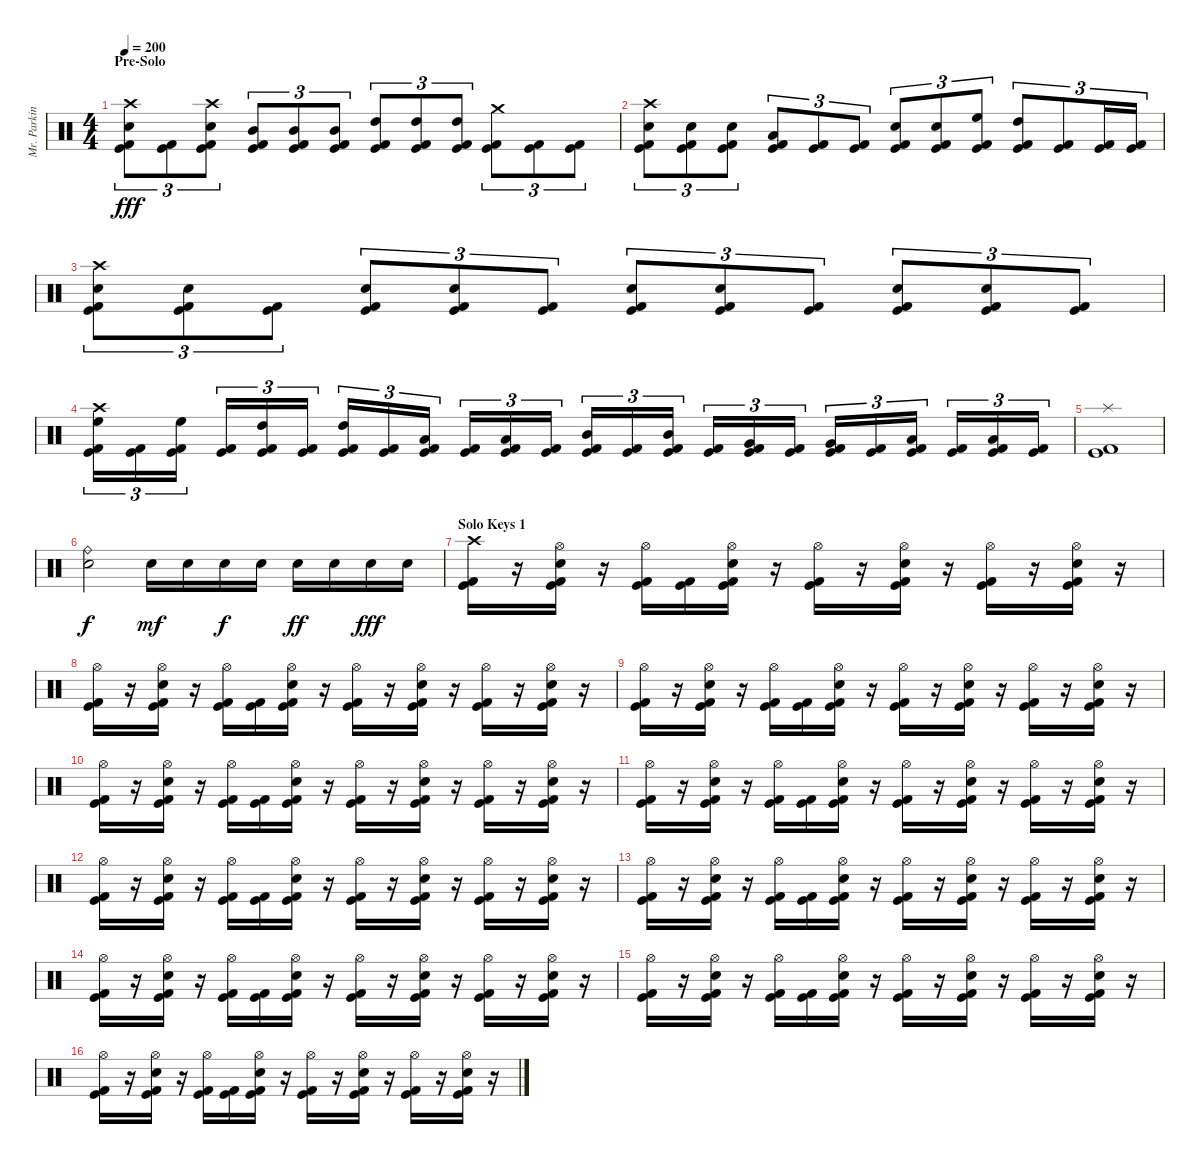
\track ("Mr. Parkinson" "Mr. Parkin") {instrument percussion}
\staff {score}
\articulation defaults
\ts (4 4)
\section ("" "Pre-Solo")
\tempo 200
\clef neutral
\ks c
("Crash high (hit)" "Electric Snare (hit)" "Kick (hit)" "Kick (hit) 2").8{tu (3 2) dy fff} ("Kick (hit)" "Kick (hit) 2").8{tu (3 2)} ("Crash high (hit)" "Electric Snare (hit)" "Kick (hit)" "Kick (hit) 2").8{tu (3 2)} ("Mid Tom (hit)" "Kick (hit)" "Kick (hit) 2").8{tu (3 2)} ("Mid Tom (hit)" "Kick (hit)" "Kick (hit) 2").8{tu (3 2)} ("Mid Tom (hit)" "Kick (hit)" "Kick (hit) 2").8{tu (3 2)} ("High Tom (hit)" "Kick (hit)" "Kick (hit) 2").8{tu (3 2)} ("High Tom (hit)" "Kick (hit)" "Kick (hit) 2").8{tu (3 2)} ("High Tom (hit)" "Kick (hit)" "Kick (hit) 2").8{tu (3 2)} ("Crash medium (hit)" "Kick (hit)" "Kick (hit) 2").8{tu (3 2)} ("Kick (hit)" "Kick (hit) 2").8{tu (3 2)} ("Kick (hit)" "Kick (hit) 2").8{tu (3 2)} |
("Crash high (hit)" "Electric Snare (hit)" "Kick (hit)" "Kick (hit) 2").8{tu (3 2)} ("Electric Snare (hit)" "Kick (hit)" "Kick (hit) 2").8{tu (3 2)} ("Electric Snare (hit)" "Kick (hit)" "Kick (hit) 2").8{tu (3 2)} ("Low Tom (hit)" "Kick (hit)" "Kick (hit) 2").8{tu (3 2)} ("Kick (hit)" "Kick (hit) 2").8{tu (3 2)} ("Kick (hit)" "Kick (hit) 2").8{tu (3 2)} ("Electric Snare (hit)" "Kick (hit)" "Kick (hit) 2").8{tu (3 2)} ("Electric Snare (hit)" "Kick (hit)" "Kick (hit) 2").8{tu (3 2)} ("High Floor Tom (hit)" "Kick (hit)" "Kick (hit) 2").8{tu (3 2)} ("High Tom (hit)" "Kick (hit)" "Kick (hit) 2").8{tu (3 2)} ("Kick (hit)" "Kick (hit) 2").8{tu (3 2)} ("Kick (hit)" "Kick (hit) 2").16{tu (3 2)} ("Kick (hit)" "Kick (hit) 2").16{tu (3 2)} |
("Crash high (hit)" "Electric Snare (hit)" "Kick (hit)" "Kick (hit) 2").8{tu (3 2)} ("Electric Snare (hit)" "Kick (hit)" "Kick (hit) 2").8{tu (3 2)} ("Kick (hit)" "Kick (hit) 2").8{tu (3 2)} ("Electric Snare (hit)" "Kick (hit)" "Kick (hit) 2").8{tu (3 2)} ("Electric Snare (hit)" "Kick (hit)" "Kick (hit) 2").8{tu (3 2)} ("Kick (hit)" "Kick (hit) 2").8{tu (3 2)} ("Electric Snare (hit)" "Kick (hit)" "Kick (hit) 2").8{tu (3 2)} ("Electric Snare (hit)" "Kick (hit)" "Kick (hit) 2").8{tu (3 2)} ("Kick (hit)" "Kick (hit) 2").8{tu (3 2)} ("Electric Snare (hit)" "Kick (hit)" "Kick (hit) 2").8{tu (3 2)} ("Electric Snare (hit)" "Kick (hit)" "Kick (hit) 2").8{tu (3 2)} ("Kick (hit)" "Kick (hit) 2").8{tu (3 2)} |
("Crash high (hit)" "High Floor Tom (hit)" "Kick (hit)" "Kick (hit) 2").16{tu (3 2)} ("Kick (hit)" "Kick (hit) 2").16{tu (3 2)} ("High Floor Tom (hit)" "Kick (hit)" "Kick (hit) 2").16{tu (3 2)} ("Kick (hit)" "Kick (hit) 2").16{tu (3 2)} ("High Tom (hit)" "Kick (hit)" "Kick (hit) 2").16{tu (3 2)} ("Kick (hit)" "Kick (hit) 2").16{tu (3 2)} ("High Tom (hit)" "Kick (hit)" "Kick (hit) 2").16{tu (3 2)} ("Kick (hit)" "Kick (hit) 2").16{tu (3 2)} ("Low Tom (hit)" "Kick (hit)" "Kick (hit) 2").16{tu (3 2)} ("Kick (hit)" "Kick (hit) 2").16{tu (3 2)} ("Low Tom (hit)" "Kick (hit)" "Kick (hit) 2").16{tu (3 2)} ("Kick (hit)" "Kick (hit) 2").16{tu (3 2)} ("Mid Tom (hit)" "Kick (hit)" "Kick (hit) 2").16{tu (3 2)} ("Kick (hit)" "Kick (hit) 2").16{tu (3 2)} ("Mid Tom (hit)" "Kick (hit)" "Kick (hit) 2").16{tu (3 2)} ("Kick (hit)" "Kick (hit) 2").16{tu (3 2)} ("Very Low Tom (hit)" "Kick (hit)" "Kick (hit) 2").16{tu (3 2)} ("Kick (hit)" "Kick (hit) 2").16{tu (3 2)} ("Very Low Tom (hit)" "Kick (hit)" "Kick (hit) 2").16{tu (3 2)} ("Kick (hit)" "Kick (hit) 2").16{tu (3 2)} ("Low Floor Tom (hit)" "Kick (hit)" "Kick (hit) 2").16{tu (3 2)} ("Kick (hit)" "Kick (hit) 2").16{tu (3 2)} ("Low Floor Tom (hit)" "Kick (hit)" "Kick (hit) 2").16{tu (3 2)} ("Kick (hit)" "Kick (hit) 2").16{tu (3 2)} |
("Splash (hit)" "Kick (hit)" "Kick (hit) 2").1 |
("Ride (bell)" "Electric Snare (hit)").2{dy f} "Electric Snare (hit)".16{dy mf} "Electric Snare (hit)".16 "Electric Snare (hit)".16{dy f} "Electric Snare (hit)".16 "Electric Snare (hit)".16{dy ff} "Electric Snare (hit)".16 "Electric Snare (hit)".16{dy fff} "Electric Snare (hit)".16 |
\section ("" "Solo Keys 1")
("Crash high (hit)" "Kick (hit)" "Kick (hit) 2").16 r.16 ("Hi-Hat (open)" "Electric Snare (hit)" "Kick (hit)" "Kick (hit) 2").16 r.16 ("Hi-Hat (open)" "Kick (hit)" "Kick (hit) 2").16 ("Kick (hit)" "Kick (hit) 2").16 ("Hi-Hat (open)" "Electric Snare (hit)" "Kick (hit)" "Kick (hit) 2").16 r.16 ("Hi-Hat (open)" "Kick (hit)" "Kick (hit) 2").16 r.16 ("Hi-Hat (open)" "Electric Snare (hit)" "Kick (hit)" "Kick (hit) 2").16 r.16 ("Hi-Hat (open)" "Kick (hit)" "Kick (hit) 2").16 r.16 ("Hi-Hat (open)" "Electric Snare (hit)" "Kick (hit)" "Kick (hit) 2").16 r.16 |
("Hi-Hat (open)" "Kick (hit)" "Kick (hit) 2").16 r.16 ("Hi-Hat (open)" "Electric Snare (hit)" "Kick (hit)" "Kick (hit) 2").16 r.16 ("Hi-Hat (open)" "Kick (hit)" "Kick (hit) 2").16 ("Kick (hit)" "Kick (hit) 2").16 ("Hi-Hat (open)" "Electric Snare (hit)" "Kick (hit)" "Kick (hit) 2").16 r.16 ("Hi-Hat (open)" "Kick (hit)" "Kick (hit) 2").16 r.16 ("Hi-Hat (open)" "Electric Snare (hit)" "Kick (hit)" "Kick (hit) 2").16 r.16 ("Hi-Hat (open)" "Kick (hit)" "Kick (hit) 2").16 r.16 ("Hi-Hat (open)" "Electric Snare (hit)" "Kick (hit)" "Kick (hit) 2").16 r.16 |
("Hi-Hat (open)" "Kick (hit)" "Kick (hit) 2").16 r.16 ("Hi-Hat (open)" "Electric Snare (hit)" "Kick (hit)" "Kick (hit) 2").16 r.16 ("Hi-Hat (open)" "Kick (hit)" "Kick (hit) 2").16 ("Kick (hit)" "Kick (hit) 2").16 ("Hi-Hat (open)" "Electric Snare (hit)" "Kick (hit)" "Kick (hit) 2").16 r.16 ("Hi-Hat (open)" "Kick (hit)" "Kick (hit) 2").16 r.16 ("Hi-Hat (open)" "Electric Snare (hit)" "Kick (hit)" "Kick (hit) 2").16 r.16 ("Hi-Hat (open)" "Kick (hit)" "Kick (hit) 2").16 r.16 ("Hi-Hat (open)" "Electric Snare (hit)" "Kick (hit)" "Kick (hit) 2").16 r.16 |
("Hi-Hat (open)" "Kick (hit)" "Kick (hit) 2").16 r.16 ("Hi-Hat (open)" "Electric Snare (hit)" "Kick (hit)" "Kick (hit) 2").16 r.16 ("Hi-Hat (open)" "Kick (hit)" "Kick (hit) 2").16 ("Kick (hit)" "Kick (hit) 2").16 ("Hi-Hat (open)" "Electric Snare (hit)" "Kick (hit)" "Kick (hit) 2").16 r.16 ("Hi-Hat (open)" "Kick (hit)" "Kick (hit) 2").16 r.16 ("Hi-Hat (open)" "Electric Snare (hit)" "Kick (hit)" "Kick (hit) 2").16 r.16 ("Hi-Hat (open)" "Kick (hit)" "Kick (hit) 2").16 r.16 ("Hi-Hat (open)" "Electric Snare (hit)" "Kick (hit)" "Kick (hit) 2").16 r.16 |
("Hi-Hat (open)" "Kick (hit)" "Kick (hit) 2").16 r.16 ("Hi-Hat (open)" "Electric Snare (hit)" "Kick (hit)" "Kick (hit) 2").16 r.16 ("Hi-Hat (open)" "Kick (hit)" "Kick (hit) 2").16 ("Kick (hit)" "Kick (hit) 2").16 ("Hi-Hat (open)" "Electric Snare (hit)" "Kick (hit)" "Kick (hit) 2").16 r.16 ("Hi-Hat (open)" "Kick (hit)" "Kick (hit) 2").16 r.16 ("Hi-Hat (open)" "Electric Snare (hit)" "Kick (hit)" "Kick (hit) 2").16 r.16 ("Hi-Hat (open)" "Kick (hit)" "Kick (hit) 2").16 r.16 ("Hi-Hat (open)" "Electric Snare (hit)" "Kick (hit)" "Kick (hit) 2").16 r.16 |
("Hi-Hat (open)" "Kick (hit)" "Kick (hit) 2").16 r.16 ("Hi-Hat (open)" "Electric Snare (hit)" "Kick (hit)" "Kick (hit) 2").16 r.16 ("Hi-Hat (open)" "Kick (hit)" "Kick (hit) 2").16 ("Kick (hit)" "Kick (hit) 2").16 ("Hi-Hat (open)" "Electric Snare (hit)" "Kick (hit)" "Kick (hit) 2").16 r.16 ("Hi-Hat (open)" "Kick (hit)" "Kick (hit) 2").16 r.16 ("Hi-Hat (open)" "Electric Snare (hit)" "Kick (hit)" "Kick (hit) 2").16 r.16 ("Hi-Hat (open)" "Kick (hit)" "Kick (hit) 2").16 r.16 ("Hi-Hat (open)" "Electric Snare (hit)" "Kick (hit)" "Kick (hit) 2").16 r.16 |
("Hi-Hat (open)" "Kick (hit)" "Kick (hit) 2").16 r.16 ("Hi-Hat (open)" "Electric Snare (hit)" "Kick (hit)" "Kick (hit) 2").16 r.16 ("Hi-Hat (open)" "Kick (hit)" "Kick (hit) 2").16 ("Kick (hit)" "Kick (hit) 2").16 ("Hi-Hat (open)" "Electric Snare (hit)" "Kick (hit)" "Kick (hit) 2").16 r.16 ("Hi-Hat (open)" "Kick (hit)" "Kick (hit) 2").16 r.16 ("Hi-Hat (open)" "Electric Snare (hit)" "Kick (hit)" "Kick (hit) 2").16 r.16 ("Hi-Hat (open)" "Kick (hit)" "Kick (hit) 2").16 r.16 ("Hi-Hat (open)" "Electric Snare (hit)" "Kick (hit)" "Kick (hit) 2").16 r.16 |
("Hi-Hat (open)" "Kick (hit)" "Kick (hit) 2").16 r.16 ("Hi-Hat (open)" "Electric Snare (hit)" "Kick (hit)" "Kick (hit) 2").16 r.16 ("Hi-Hat (open)" "Kick (hit)" "Kick (hit) 2").16 ("Kick (hit)" "Kick (hit) 2").16 ("Hi-Hat (open)" "Electric Snare (hit)" "Kick (hit)" "Kick (hit) 2").16 r.16 ("Hi-Hat (open)" "Kick (hit)" "Kick (hit) 2").16 r.16 ("Hi-Hat (open)" "Electric Snare (hit)" "Kick (hit)" "Kick (hit) 2").16 r.16 ("Hi-Hat (open)" "Kick (hit)" "Kick (hit) 2").16 r.16 ("Hi-Hat (open)" "Electric Snare (hit)" "Kick (hit)" "Kick (hit) 2").16 r.16 |
("Hi-Hat (open)" "Kick (hit)" "Kick (hit) 2").16 r.16 ("Hi-Hat (open)" "Electric Snare (hit)" "Kick (hit)" "Kick (hit) 2").16 r.16 ("Hi-Hat (open)" "Kick (hit)" "Kick (hit) 2").16 ("Kick (hit)" "Kick (hit) 2").16 ("Hi-Hat (open)" "Electric Snare (hit)" "Kick (hit)" "Kick (hit) 2").16 r.16 ("Hi-Hat (open)" "Kick (hit)" "Kick (hit) 2").16 r.16 ("Hi-Hat (open)" "Electric Snare (hit)" "Kick (hit)" "Kick (hit) 2").16 r.16 ("Hi-Hat (open)" "Kick (hit)" "Kick (hit) 2").16 r.16 ("Hi-Hat (open)" "Electric Snare (hit)" "Kick (hit)" "Kick (hit) 2").16 r.16 |
("Hi-Hat (open)" "Kick (hit)" "Kick (hit) 2").16 r.16 ("Hi-Hat (open)" "Electric Snare (hit)" "Kick (hit)" "Kick (hit) 2").16 r.16 ("Hi-Hat (open)" "Kick (hit)" "Kick (hit) 2").16 ("Kick (hit)" "Kick (hit) 2").16 ("Hi-Hat (open)" "Electric Snare (hit)" "Kick (hit)" "Kick (hit) 2").16 r.16 ("Hi-Hat (open)" "Kick (hit)" "Kick (hit) 2").16 r.16 ("Hi-Hat (open)" "Electric Snare (hit)" "Kick (hit)" "Kick (hit) 2").16 r.16 ("Hi-Hat (open)" "Kick (hit)" "Kick (hit) 2").16 r.16 ("Hi-Hat (open)" "Electric Snare (hit)" "Kick (hit)" "Kick (hit) 2").16 r.16
